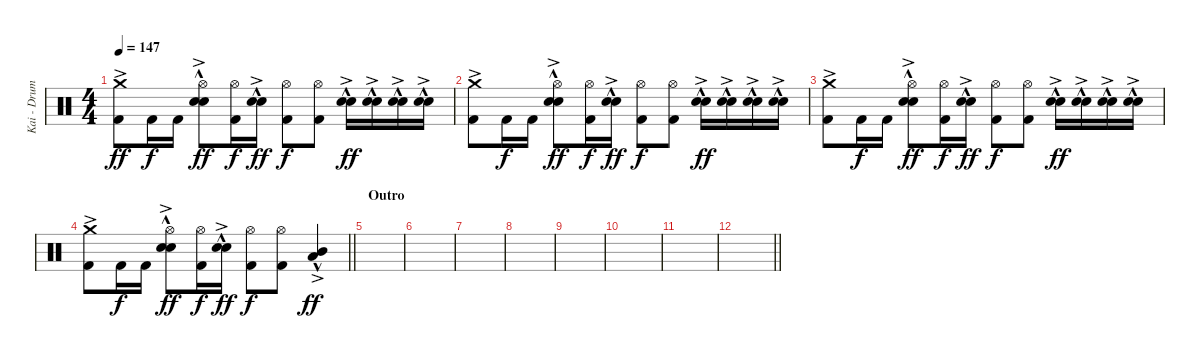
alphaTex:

\track ("Kai - Drums" "Kai - Drum") {instrument percussion}
\staff {score}
\articulation defaults
\ts (4 4)
\tempo 147
\clef neutral
\ks c
("Crash medium (hit)"{ac} "Kick (hit) 2").8{dy ff} "Kick (hit) 2".16{dy f} "Kick (hit) 2".16 ("Hi-Hat (open)" "Electric Snare (hit)"{hac} "Snare (hit) 2"{ac}).8{dy ff} ("Hi-Hat (open)" "Kick (hit) 2").16{dy f} ("Electric Snare (hit)"{hac} "Snare (hit) 2"{ac}).16{dy ff} ("Hi-Hat (open)" "Kick (hit) 2").8{dy f} ("Hi-Hat (open)" "Kick (hit) 2").8 ("Electric Snare (hit)"{hac} "Snare (hit) 2"{ac}).16{dy ff} ("Electric Snare (hit)"{hac} "Snare (hit) 2"{ac}).16 ("Electric Snare (hit)"{hac} "Snare (hit) 2"{ac}).16 ("Electric Snare (hit)"{hac} "Snare (hit) 2"{ac}).16 |
("Crash medium (hit)"{ac} "Kick (hit) 2").8 "Kick (hit) 2".16{dy f} "Kick (hit) 2".16 ("Hi-Hat (open)" "Electric Snare (hit)"{hac} "Snare (hit) 2"{ac}).8{dy ff} ("Hi-Hat (open)" "Kick (hit) 2").16{dy f} ("Electric Snare (hit)"{hac} "Snare (hit) 2"{ac}).16{dy ff} ("Hi-Hat (open)" "Kick (hit) 2").8{dy f} ("Hi-Hat (open)" "Kick (hit) 2").8 ("Electric Snare (hit)"{hac} "Snare (hit) 2"{ac}).16{dy ff} ("Electric Snare (hit)"{hac} "Snare (hit) 2"{ac}).16 ("Electric Snare (hit)"{hac} "Snare (hit) 2"{ac}).16 ("Electric Snare (hit)"{hac} "Snare (hit) 2"{ac}).16 |
("Crash medium (hit)"{ac} "Kick (hit) 2").8 "Kick (hit) 2".16{dy f} "Kick (hit) 2".16 ("Hi-Hat (open)" "Electric Snare (hit)"{hac} "Snare (hit) 2"{ac}).8{dy ff} ("Hi-Hat (open)" "Kick (hit) 2").16{dy f} ("Electric Snare (hit)"{hac} "Snare (hit) 2"{ac}).16{dy ff} ("Hi-Hat (open)" "Kick (hit) 2").8{dy f} ("Hi-Hat (open)" "Kick (hit) 2").8 ("Electric Snare (hit)"{hac} "Snare (hit) 2"{ac}).16{dy ff} ("Electric Snare (hit)"{hac} "Snare (hit) 2"{ac}).16 ("Electric Snare (hit)"{hac} "Snare (hit) 2"{ac}).16 ("Electric Snare (hit)"{hac} "Snare (hit) 2"{ac}).16 |
\barLineRight lightlight
("Crash medium (hit)"{ac} "Kick (hit) 2").8 "Kick (hit) 2".16{dy f} "Kick (hit) 2".16 ("Hi-Hat (open)" "Electric Snare (hit)"{hac} "Snare (hit) 2"{ac}).8{dy ff} ("Hi-Hat (open)" "Kick (hit) 2").16{dy f} ("Electric Snare (hit)"{hac} "Snare (hit) 2"{ac}).16{dy ff} ("Hi-Hat (open)" "Kick (hit) 2").8{dy f} ("Hi-Hat (open)" "Kick (hit) 2").8 ("Mid Tom (hit)"{hac} "Low Tom (hit)"{ac}).4{dy ff} |
\section ("" "Outro")
|
|
|
|
|
|
|
\barLineRight lightlight
